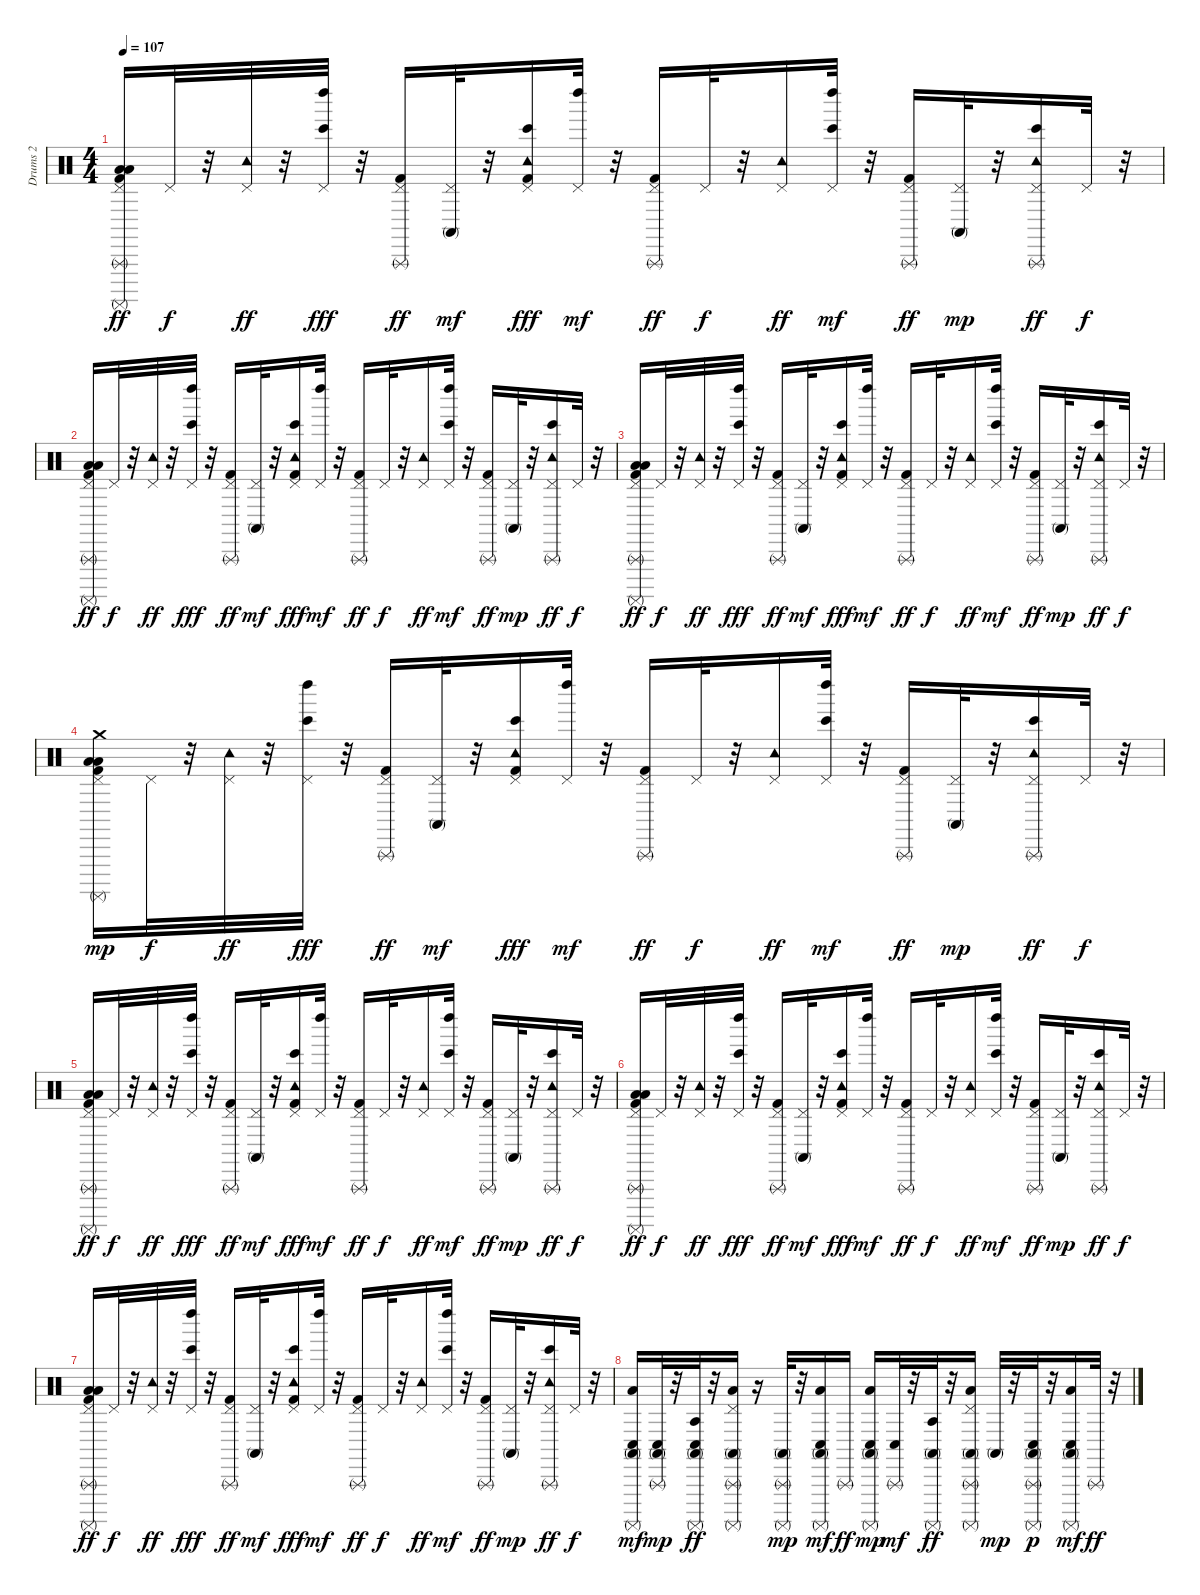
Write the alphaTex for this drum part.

\track ("Drums 2" "Drums 2") {instrument percussion}
\staff {score}
\articulation defaults
\ts (4 4)
\tempo 107
\clef neutral
\ks c
("Kick (hit) 2" "Pedal Hi-Hat (hit)" "Low Tom (hit)" "Low Floor Tom (hit)" "Surdo (mute)" "Triangle (rnute)").16{dy ff} "Pedal Hi-Hat (hit)".32{dy f} r.32 ("Tambourine (hit)" "Pedal Hi-Hat (hit)").32{dy ff} r.32 ("Pedal Hi-Hat (hit)" "Bongo High (hit)" "Left Maraca (hit)").32{dy fff} r.32 ("Kick (hit) 2" "Pedal Hi-Hat (hit)" "Triangle (rnute)").16{dy ff} ("Pedal Hi-Hat (hit)" "Conga high (mute)").32{dy mf} r.32 ("Kick (hit) 2" "Tambourine (hit)" "Pedal Hi-Hat (hit)" "Bongo High (hit)").16{dy fff} ("Pedal Hi-Hat (hit)" "Left Maraca (hit)").32{dy mf} r.32 ("Kick (hit) 2" "Pedal Hi-Hat (hit)" "Triangle (rnute)").16{dy ff} "Pedal Hi-Hat (hit)".32{dy f} r.32 ("Tambourine (hit)" "Pedal Hi-Hat (hit)").16{dy ff} ("Pedal Hi-Hat (hit)" "Bongo High (hit)" "Left Maraca (hit)").32{dy mf} r.32 ("Kick (hit) 2" "Pedal Hi-Hat (hit)" "Triangle (rnute)").16{dy ff} ("Pedal Hi-Hat (hit)" "Conga high (mute)").32{dy mp} r.32 ("Tambourine (hit)" "Pedal Hi-Hat (hit)" "Bongo High (hit)" "Triangle (rnute)").16{dy ff} "Pedal Hi-Hat (hit)".32{dy f} r.32 |
("Kick (hit) 2" "Pedal Hi-Hat (hit)" "Low Tom (hit)" "Low Floor Tom (hit)" "Surdo (mute)" "Triangle (rnute)").16{dy ff} "Pedal Hi-Hat (hit)".32{dy f} r.32 ("Tambourine (hit)" "Pedal Hi-Hat (hit)").32{dy ff} r.32 ("Pedal Hi-Hat (hit)" "Bongo High (hit)" "Left Maraca (hit)").32{dy fff} r.32 ("Kick (hit) 2" "Pedal Hi-Hat (hit)" "Triangle (rnute)").16{dy ff} ("Pedal Hi-Hat (hit)" "Conga high (mute)").32{dy mf} r.32 ("Kick (hit) 2" "Tambourine (hit)" "Pedal Hi-Hat (hit)" "Bongo High (hit)").16{dy fff} ("Pedal Hi-Hat (hit)" "Left Maraca (hit)").32{dy mf} r.32 ("Kick (hit) 2" "Pedal Hi-Hat (hit)" "Triangle (rnute)").16{dy ff} "Pedal Hi-Hat (hit)".32{dy f} r.32 ("Tambourine (hit)" "Pedal Hi-Hat (hit)").16{dy ff} ("Pedal Hi-Hat (hit)" "Bongo High (hit)" "Left Maraca (hit)").32{dy mf} r.32 ("Kick (hit) 2" "Pedal Hi-Hat (hit)" "Triangle (rnute)").16{dy ff} ("Pedal Hi-Hat (hit)" "Conga high (mute)").32{dy mp} r.32 ("Tambourine (hit)" "Pedal Hi-Hat (hit)" "Bongo High (hit)" "Triangle (rnute)").16{dy ff} "Pedal Hi-Hat (hit)".32{dy f} r.32 |
("Kick (hit) 2" "Pedal Hi-Hat (hit)" "Low Tom (hit)" "Low Floor Tom (hit)" "Surdo (mute)" "Triangle (rnute)").16{dy ff} "Pedal Hi-Hat (hit)".32{dy f} r.32 ("Tambourine (hit)" "Pedal Hi-Hat (hit)").32{dy ff} r.32 ("Pedal Hi-Hat (hit)" "Bongo High (hit)" "Left Maraca (hit)").32{dy fff} r.32 ("Kick (hit) 2" "Pedal Hi-Hat (hit)" "Triangle (rnute)").16{dy ff} ("Pedal Hi-Hat (hit)" "Conga high (mute)").32{dy mf} r.32 ("Kick (hit) 2" "Tambourine (hit)" "Pedal Hi-Hat (hit)" "Bongo High (hit)").16{dy fff} ("Pedal Hi-Hat (hit)" "Left Maraca (hit)").32{dy mf} r.32 ("Kick (hit) 2" "Pedal Hi-Hat (hit)" "Triangle (rnute)").16{dy ff} "Pedal Hi-Hat (hit)".32{dy f} r.32 ("Tambourine (hit)" "Pedal Hi-Hat (hit)").16{dy ff} ("Pedal Hi-Hat (hit)" "Bongo High (hit)" "Left Maraca (hit)").32{dy mf} r.32 ("Kick (hit) 2" "Pedal Hi-Hat (hit)" "Triangle (rnute)").16{dy ff} ("Pedal Hi-Hat (hit)" "Conga high (mute)").32{dy mp} r.32 ("Tambourine (hit)" "Pedal Hi-Hat (hit)" "Bongo High (hit)" "Triangle (rnute)").16{dy ff} "Pedal Hi-Hat (hit)".32{dy f} r.32 |
("Kick (hit) 2" "Pedal Hi-Hat (hit)" "Low Tom (hit)" "Low Floor Tom (hit)" "Surdo (mute)" "Crash medium (hit)").16{dy mp} "Pedal Hi-Hat (hit)".32{dy f} r.32 ("Tambourine (hit)" "Pedal Hi-Hat (hit)").32{dy ff} r.32 ("Pedal Hi-Hat (hit)" "Bongo High (hit)" "Left Maraca (hit)").32{dy fff} r.32 ("Kick (hit) 2" "Pedal Hi-Hat (hit)" "Triangle (rnute)").16{dy ff} ("Pedal Hi-Hat (hit)" "Conga high (mute)").32{dy mf} r.32 ("Kick (hit) 2" "Tambourine (hit)" "Pedal Hi-Hat (hit)" "Bongo High (hit)").16{dy fff} ("Pedal Hi-Hat (hit)" "Left Maraca (hit)").32{dy mf} r.32 ("Kick (hit) 2" "Pedal Hi-Hat (hit)" "Triangle (rnute)").16{dy ff} "Pedal Hi-Hat (hit)".32{dy f} r.32 ("Tambourine (hit)" "Pedal Hi-Hat (hit)").16{dy ff} ("Pedal Hi-Hat (hit)" "Bongo High (hit)" "Left Maraca (hit)").32{dy mf} r.32 ("Kick (hit) 2" "Pedal Hi-Hat (hit)" "Triangle (rnute)").16{dy ff} ("Pedal Hi-Hat (hit)" "Conga high (mute)").32{dy mp} r.32 ("Tambourine (hit)" "Pedal Hi-Hat (hit)" "Bongo High (hit)" "Triangle (rnute)").16{dy ff} "Pedal Hi-Hat (hit)".32{dy f} r.32 |
("Kick (hit) 2" "Pedal Hi-Hat (hit)" "Low Tom (hit)" "Low Floor Tom (hit)" "Surdo (mute)" "Triangle (rnute)").16{dy ff} "Pedal Hi-Hat (hit)".32{dy f} r.32 ("Tambourine (hit)" "Pedal Hi-Hat (hit)").32{dy ff} r.32 ("Pedal Hi-Hat (hit)" "Bongo High (hit)" "Left Maraca (hit)").32{dy fff} r.32 ("Kick (hit) 2" "Pedal Hi-Hat (hit)" "Triangle (rnute)").16{dy ff} ("Pedal Hi-Hat (hit)" "Conga high (mute)").32{dy mf} r.32 ("Kick (hit) 2" "Tambourine (hit)" "Pedal Hi-Hat (hit)" "Bongo High (hit)").16{dy fff} ("Pedal Hi-Hat (hit)" "Left Maraca (hit)").32{dy mf} r.32 ("Kick (hit) 2" "Pedal Hi-Hat (hit)" "Triangle (rnute)").16{dy ff} "Pedal Hi-Hat (hit)".32{dy f} r.32 ("Tambourine (hit)" "Pedal Hi-Hat (hit)").16{dy ff} ("Pedal Hi-Hat (hit)" "Bongo High (hit)" "Left Maraca (hit)").32{dy mf} r.32 ("Kick (hit) 2" "Pedal Hi-Hat (hit)" "Triangle (rnute)").16{dy ff} ("Pedal Hi-Hat (hit)" "Conga high (mute)").32{dy mp} r.32 ("Tambourine (hit)" "Pedal Hi-Hat (hit)" "Bongo High (hit)" "Triangle (rnute)").16{dy ff} "Pedal Hi-Hat (hit)".32{dy f} r.32 |
("Kick (hit) 2" "Pedal Hi-Hat (hit)" "Low Tom (hit)" "Low Floor Tom (hit)" "Surdo (mute)" "Triangle (rnute)").16{dy ff} "Pedal Hi-Hat (hit)".32{dy f} r.32 ("Tambourine (hit)" "Pedal Hi-Hat (hit)").32{dy ff} r.32 ("Pedal Hi-Hat (hit)" "Bongo High (hit)" "Left Maraca (hit)").32{dy fff} r.32 ("Kick (hit) 2" "Pedal Hi-Hat (hit)" "Triangle (rnute)").16{dy ff} ("Pedal Hi-Hat (hit)" "Conga high (mute)").32{dy mf} r.32 ("Kick (hit) 2" "Tambourine (hit)" "Pedal Hi-Hat (hit)" "Bongo High (hit)").16{dy fff} ("Pedal Hi-Hat (hit)" "Left Maraca (hit)").32{dy mf} r.32 ("Kick (hit) 2" "Pedal Hi-Hat (hit)" "Triangle (rnute)").16{dy ff} "Pedal Hi-Hat (hit)".32{dy f} r.32 ("Tambourine (hit)" "Pedal Hi-Hat (hit)").16{dy ff} ("Pedal Hi-Hat (hit)" "Bongo High (hit)" "Left Maraca (hit)").32{dy mf} r.32 ("Kick (hit) 2" "Pedal Hi-Hat (hit)" "Triangle (rnute)").16{dy ff} ("Pedal Hi-Hat (hit)" "Conga high (mute)").32{dy mp} r.32 ("Tambourine (hit)" "Pedal Hi-Hat (hit)" "Bongo High (hit)" "Triangle (rnute)").16{dy ff} "Pedal Hi-Hat (hit)".32{dy f} r.32 |
("Kick (hit) 2" "Pedal Hi-Hat (hit)" "Low Tom (hit)" "Low Floor Tom (hit)" "Surdo (mute)" "Triangle (rnute)").16{dy ff} "Pedal Hi-Hat (hit)".32{dy f} r.32 ("Tambourine (hit)" "Pedal Hi-Hat (hit)").32{dy ff} r.32 ("Pedal Hi-Hat (hit)" "Bongo High (hit)" "Left Maraca (hit)").32{dy fff} r.32 ("Kick (hit) 2" "Pedal Hi-Hat (hit)" "Triangle (rnute)").16{dy ff} ("Pedal Hi-Hat (hit)" "Conga high (mute)").32{dy mf} r.32 ("Kick (hit) 2" "Tambourine (hit)" "Pedal Hi-Hat (hit)" "Bongo High (hit)").16{dy fff} ("Pedal Hi-Hat (hit)" "Left Maraca (hit)").32{dy mf} r.32 ("Kick (hit) 2" "Pedal Hi-Hat (hit)" "Triangle (rnute)").16{dy ff} "Pedal Hi-Hat (hit)".32{dy f} r.32 ("Tambourine (hit)" "Pedal Hi-Hat (hit)").16{dy ff} ("Pedal Hi-Hat (hit)" "Bongo High (hit)" "Left Maraca (hit)").32{dy mf} r.32 ("Kick (hit) 2" "Pedal Hi-Hat (hit)" "Triangle (rnute)").16{dy ff} ("Pedal Hi-Hat (hit)" "Conga high (mute)").32{dy mp} r.32 ("Tambourine (hit)" "Pedal Hi-Hat (hit)" "Bongo High (hit)" "Triangle (rnute)").16{dy ff} "Pedal Hi-Hat (hit)".32{dy f} r.32 |
("Surdo (mute)" "Low Floor Tom (hit)" "Conga high (mute)" "Conga low (hit)").16{dy mf} ("Conga low (hit)" "Conga high (mute)" "Triangle (rnute)").32{dy mp} r.32 ("Surdo (mute)" "Conga high (mute)" "Conga low (hit)" "Agogo tow (hit)").32{dy ff} r.32 ("Surdo (mute)" "Low Floor Tom (hit)" "Conga high (mute)" "Triangle (rnute)" "Pedal Hi-Hat (hit)").16 r.16 ("Surdo (mute)" "Conga high (mute)" "Triangle (rnute)").32{dy mp} r.32 ("Surdo (mute)" "Low Floor Tom (hit)" "Conga low (hit)" "Conga high (mute)").16{dy mf} "Triangle (rnute)".16{dy ff} ("Surdo (mute)" "Low Floor Tom (hit)" "Conga low (hit)" "Conga high (mute)").16{dy mp} ("Conga low (hit)" "Triangle (rnute)").32{dy mf} r.32 ("Surdo (mute)" "Conga high (mute)" "Agogo tow (hit)").32{dy ff} r.32 ("Surdo (mute)" "Low Floor Tom (hit)" "Conga high (mute)" "Triangle (rnute)" "Pedal Hi-Hat (hit)").16 "Conga high (mute)".32{dy mp} r.32 ("Surdo (mute)" "Conga high (mute)" "Conga low (hit)" "Triangle (rnute)").32{dy p} r.32 ("Surdo (mute)" "Low Floor Tom (hit)" "Conga low (hit)" "Conga high (mute)").16{dy mf} "Triangle (rnute)".32{dy ff} r.32
